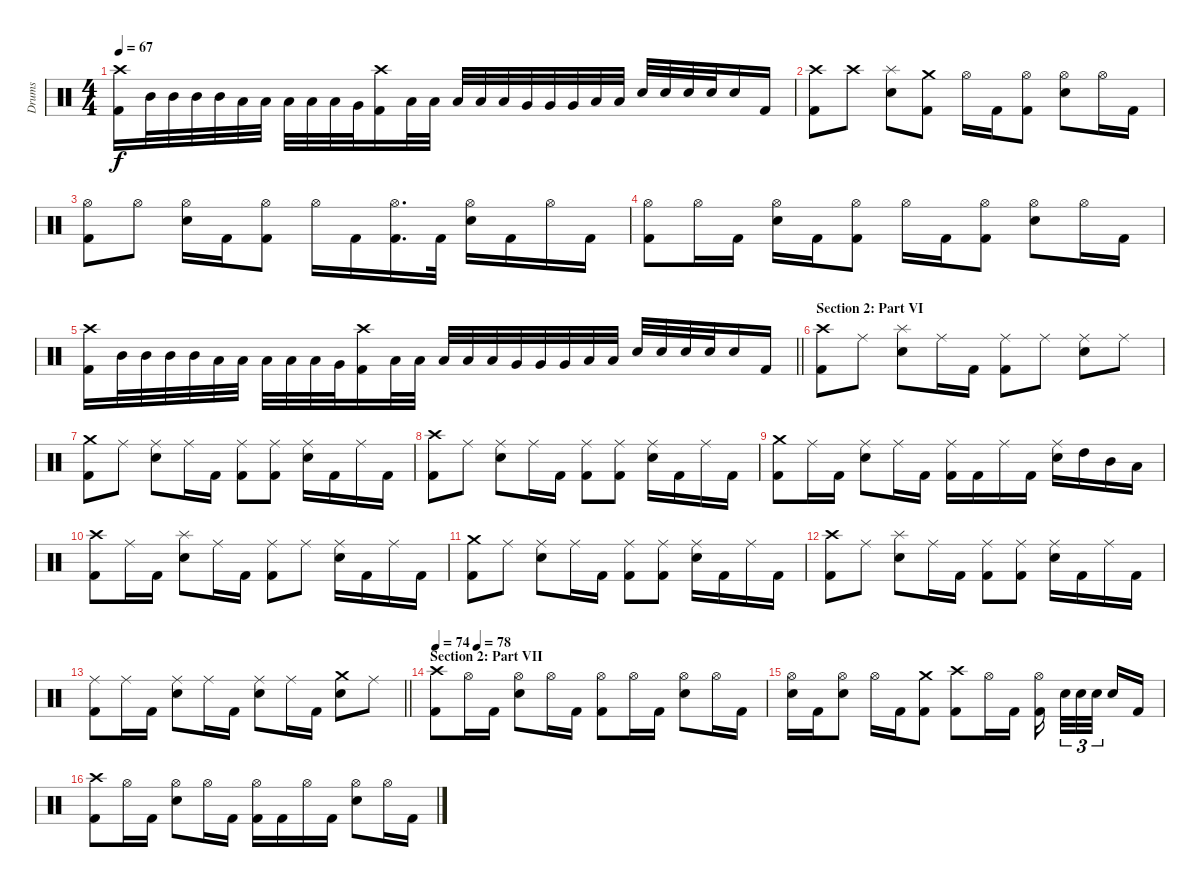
\track ("Drums" "Drums") {instrument percussion}
\staff {score}
\articulation defaults
\ts (4 4)
\tempo 67
\clef neutral
\ks c
("Crash high (hit)" "Kick (hit) 2").16{dy f} "Mid Tom (hit)".32 "Mid Tom (hit)".32 "Mid Tom (hit)".32 "Mid Tom (hit)".32 "Low Tom (hit)".32 "Low Tom (hit)".32 "Low Tom (hit)".32 "Low Tom (hit)".32 "Low Tom (hit)".32 "Very Low Tom (hit)".32 ("Crash high (hit)" "Kick (hit) 2").16 "Low Tom (hit)".32 "Low Tom (hit)".32 "Low Tom (hit)".32 "Low Tom (hit)".32 "Low Tom (hit)".32 "Very Low Tom (hit)".32 "Very Low Tom (hit)".32 "Very Low Tom (hit)".32 "Low Floor Tom (hit)".32 "Low Floor Tom (hit)".32 "Electric Snare (hit)".32 "Electric Snare (hit)".32 "Electric Snare (hit)".32 "Electric Snare (hit)".32 "Electric Snare (hit)".16 "Kick (hit) 2".16 |
("Crash high (hit)" "Kick (hit) 2").8 "Crash high (hit)".8 ("Splash (hit)" "Electric Snare (hit)").8 ("Crash medium (hit)" "Kick (hit) 2").8 "Hi-Hat (open)".16 "Kick (hit) 2".16 ("Hi-Hat (open)" "Kick (hit) 2").8 ("Hi-Hat (open)" "Electric Snare (hit)").8 "Hi-Hat (open)".16 "Kick (hit) 2".16 |
("Hi-Hat (open)" "Kick (hit) 2").8 "Hi-Hat (open)".8 ("Hi-Hat (open)" "Electric Snare (hit)").16 "Kick (hit) 2".16 ("Hi-Hat (open)" "Kick (hit) 2").8 "Hi-Hat (open)".16 "Kick (hit) 2".16 ("Hi-Hat (open)" "Kick (hit) 2").16{d} "Kick (hit) 2".32 ("Hi-Hat (open)" "Electric Snare (hit)").16 "Kick (hit) 2".16 "Hi-Hat (open)".16 "Kick (hit) 2".16 |
("Hi-Hat (open)" "Kick (hit) 2").8 "Hi-Hat (open)".16 "Kick (hit) 2".16 ("Hi-Hat (open)" "Electric Snare (hit)").16 "Kick (hit) 2".16 ("Hi-Hat (open)" "Kick (hit) 2").8 "Hi-Hat (open)".16 "Kick (hit) 2".16 ("Hi-Hat (open)" "Kick (hit) 2").8 ("Hi-Hat (open)" "Electric Snare (hit)").8 "Hi-Hat (open)".16 "Kick (hit) 2".16 |
\barLineRight lightlight
("Crash high (hit)" "Kick (hit) 2").16 "Mid Tom (hit)".32 "Mid Tom (hit)".32 "Mid Tom (hit)".32 "Mid Tom (hit)".32 "Low Tom (hit)".32 "Low Tom (hit)".32 "Low Tom (hit)".32 "Low Tom (hit)".32 "Low Tom (hit)".32 "Very Low Tom (hit)".32 ("Crash high (hit)" "Kick (hit) 2").16 "Low Tom (hit)".32 "Low Tom (hit)".32 "Low Tom (hit)".32 "Low Tom (hit)".32 "Low Tom (hit)".32 "Very Low Tom (hit)".32 "Very Low Tom (hit)".32 "Very Low Tom (hit)".32 "Low Floor Tom (hit)".32 "Low Floor Tom (hit)".32 "Electric Snare (hit)".32 "Electric Snare (hit)".32 "Electric Snare (hit)".32 "Electric Snare (hit)".32 "Electric Snare (hit)".16 "Kick (hit) 2".16 |
\section ("" "Section 2: Part VI")
("Crash high (hit)" "Kick (hit) 2").8 "Ride (middle)".8 ("Splash (hit)" "Electric Snare (hit)").8 "Ride (middle)".16 "Kick (hit) 2".16 ("Ride (middle)" "Kick (hit) 2").8 "Ride (middle)".8 ("Ride (middle)" "Electric Snare (hit)").8 "Ride (middle)".8 |
("Crash medium (hit)" "Kick (hit) 2").8 "Ride (middle)".8 ("Ride (middle)" "Electric Snare (hit)").8 "Ride (middle)".16 "Kick (hit) 2".16 ("Ride (middle)" "Kick (hit) 2").8 ("Ride (middle)" "Kick (hit) 2").8 ("Ride (middle)" "Electric Snare (hit)").16 "Kick (hit) 2".16 "Ride (middle)".16 "Kick (hit) 2".16 |
("Crash high (hit)" "Kick (hit) 2").8 "Ride (middle)".8 ("Ride (middle)" "Electric Snare (hit)").8 "Ride (middle)".16 "Kick (hit) 2".16 ("Ride (middle)" "Kick (hit) 2").8 ("Ride (middle)" "Kick (hit) 2").8 ("Ride (middle)" "Electric Snare (hit)").16 "Kick (hit) 2".16 "Ride (middle)".16 "Kick (hit) 2".16 |
("Crash medium (hit)" "Kick (hit) 2").8 "Ride (middle)".16 "Kick (hit) 2".16 ("Ride (middle)" "Electric Snare (hit)").8 "Ride (middle)".16 "Kick (hit) 2".16 ("Ride (middle)" "Kick (hit) 2").16 "Kick (hit) 2".16 "Ride (middle)".16 "Kick (hit) 2".16 ("Ride (middle)" "Electric Snare (hit)").16 "High Tom (hit)".16 "Mid Tom (hit)".16 "Low Floor Tom (hit)".16 |
("Crash high (hit)" "Kick (hit) 2").8 "Ride (middle)".16 "Kick (hit) 2".16 ("Splash (hit)" "Electric Snare (hit)").8 "Ride (middle)".16 "Kick (hit) 2".16 ("Ride (middle)" "Kick (hit) 2").8 "Ride (middle)".8 ("Ride (middle)" "Electric Snare (hit)").16 "Kick (hit) 2".16 "Ride (middle)".16 "Kick (hit) 2".16 |
("Crash medium (hit)" "Kick (hit) 2").8 "Ride (middle)".8 ("Ride (middle)" "Electric Snare (hit)").8 "Ride (middle)".16 "Kick (hit) 2".16 ("Ride (middle)" "Kick (hit) 2").8 ("Ride (middle)" "Kick (hit) 2").8 ("Ride (middle)" "Electric Snare (hit)").16 "Kick (hit) 2".16 "Ride (middle)".16 "Kick (hit) 2".16 |
("Crash high (hit)" "Kick (hit) 2").8 "Ride (middle)".8 ("Splash (hit)" "Electric Snare (hit)").8 "Ride (middle)".16 "Kick (hit) 2".16 ("Ride (middle)" "Kick (hit) 2").8 ("Ride (middle)" "Kick (hit) 2").8 ("Ride (middle)" "Electric Snare (hit)").16 "Kick (hit) 2".16 "Ride (middle)".16 "Kick (hit) 2".16 |
\barLineRight lightlight
("Ride (middle)" "Kick (hit) 2").8 "Ride (middle)".16 "Kick (hit) 2".16 ("Ride (middle)" "Electric Snare (hit)").8 "Ride (middle)".16 "Kick (hit) 2".16 ("Ride (middle)" "Electric Snare (hit)").8 "Ride (middle)".16 "Kick (hit) 2".16 ("Crash medium (hit)" "Electric Snare (hit)").8 "Ride (middle)".8 |
\section ("" "Section 2: Part VII")
\tempo 74
\tempo (78 0.125)
("Crash high (hit)" "Kick (hit) 2").8 "Hi-Hat (open)".16 "Kick (hit) 2".16 ("Hi-Hat (open)" "Electric Snare (hit)").8 "Hi-Hat (open)".16 "Kick (hit) 2".16 ("Hi-Hat (open)" "Kick (hit) 2").8 "Hi-Hat (open)".16 "Kick (hit) 2".16 ("Hi-Hat (open)" "Electric Snare (hit)").8 "Hi-Hat (open)".16 "Kick (hit) 2".16 |
("Hi-Hat (open)" "Electric Snare (hit)").16 "Kick (hit) 2".16 ("Hi-Hat (open)" "Electric Snare (hit)").8 "Hi-Hat (open)".16 "Kick (hit) 2".16 ("Crash medium (hit)" "Kick (hit) 2").8 ("Crash high (hit)" "Kick (hit) 2").8 "Hi-Hat (open)".16 "Kick (hit) 2".16 ("Hi-Hat (open)" "Kick (hit) 2").16{beam splitsecondary} "Electric Snare (hit)".32{tu (3 2)} "Electric Snare (hit)".32{tu (3 2)} "Electric Snare (hit)".32{tu (3 2) beam splitsecondary} "Electric Snare (hit)".16 "Kick (hit) 2".16 |
("Crash high (hit)" "Kick (hit) 2").8 "Hi-Hat (open)".16 "Kick (hit) 2".16 ("Hi-Hat (open)" "Electric Snare (hit)").8 "Hi-Hat (open)".16 "Kick (hit) 2".16 ("Hi-Hat (open)" "Kick (hit) 2").16 "Kick (hit) 2".16 "Hi-Hat (open)".16 "Kick (hit) 2".16 ("Hi-Hat (open)" "Electric Snare (hit)").8 "Hi-Hat (open)".16 "Kick (hit) 2".16
